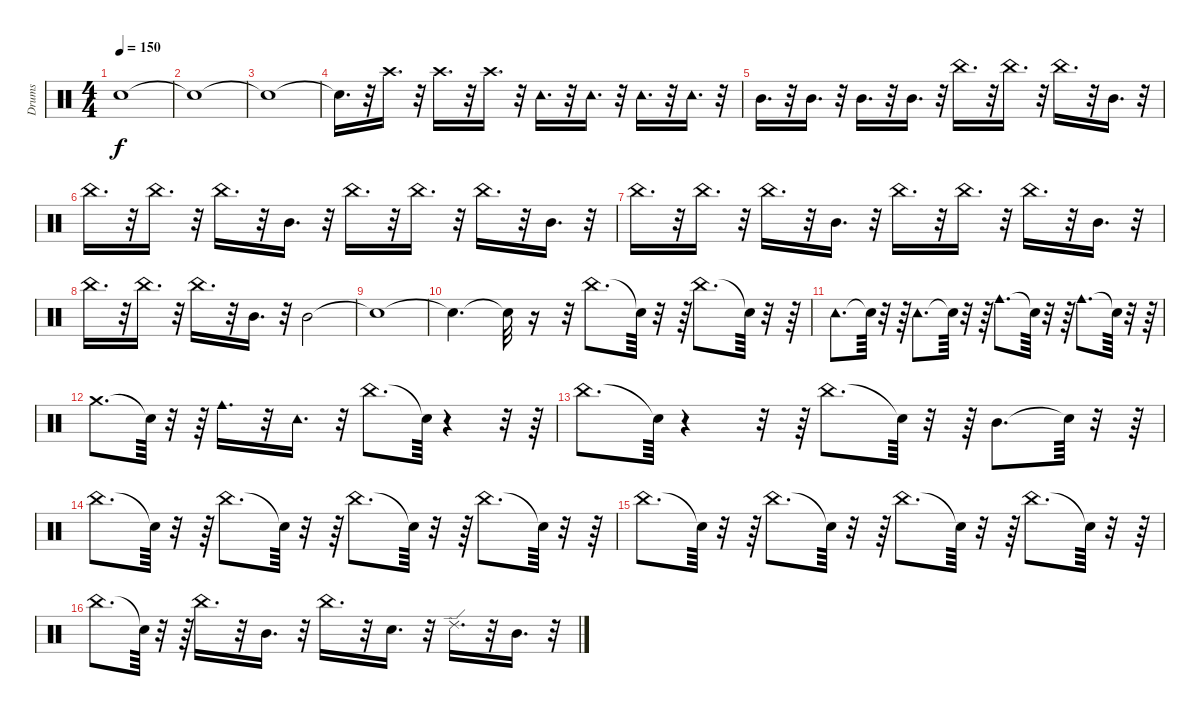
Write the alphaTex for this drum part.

\track ("Drums" "Drums") {instrument percussion}
\staff {score}
\articulation defaults
\ts (4 4)
\tempo 150
\clef neutral
\ks c "Snare (hit)"{t}.1{dy f}
|
"Snare (hit)"{t}.1 |
"Snare (hit)"{t}.1 |
"Snare (hit)"{t}.16{d} r.32 "Crash high (hit)".16{d} r.32 "Crash high (hit)".16{d} r.32 "Crash high (hit)".16{d} r.32 "Tambourine (hit)".16{d} r.32 "Tambourine (hit)".16{d} r.32 "Tambourine (hit)".16{d} r.32 "Tambourine (hit)".16{d} r.32 |
"Mid Tom (hit)".16{d} r.32 "Mid Tom (hit)".16{d} r.32 "Mid Tom (hit)".16{d} r.32 "Mid Tom (hit)".16{d} r.32 "China (hit)".16{d} r.32 "China (hit)".16{d} r.32 "China (hit)".16{d} r.32 "Mid Tom (hit)".16{d} r.32 |
"China (hit)".16{d} r.32 "China (hit)".16{d} r.32 "China (hit)".16{d} r.32 "Mid Tom (hit)".16{d} r.32 "China (hit)".16{d} r.32 "China (hit)".16{d} r.32 "China (hit)".16{d} r.32 "Mid Tom (hit)".16{d} r.32 |
"China (hit)".16{d} r.32 "China (hit)".16{d} r.32 "China (hit)".16{d} r.32 "Mid Tom (hit)".16{d} r.32 "China (hit)".16{d} r.32 "China (hit)".16{d} r.32 "China (hit)".16{d} r.32 "Mid Tom (hit)".16{d} r.32 |
"China (hit)".16{d} r.32 "China (hit)".16{d} r.32 "China (hit)".16{d} r.32 "Mid Tom (hit)".16{d} r.32 "Mid Tom (hit)".2 |
"Snare (hit)"{t}.1 |
"Snare (hit)"{t}.4{d} "Snare (hit)"{t}.32 r.16 r.32 "China (hit)".8{d} "Snare (hit)"{t}.64 r.32 r.64 "China (hit)".8{d} "Snare (hit)"{t}.64 r.32 r.64 |
"Tambourine (hit)".8{d} "Snare (hit)"{t}.64 r.32 r.64 "Tambourine (hit)".8{d} "Snare (hit)"{t}.64 r.32 r.64 "Cowbell medium (hit)".8{d} "Snare (hit)"{t}.64 r.32 r.64 "Cowbell medium (hit)".8{d} "Snare (hit)"{t}.64 r.32 r.64 |
"Crash medium (hit)".8{d} "Snare (hit)"{t}.64 r.32 r.64 "Cowbell medium (hit)".16{d} r.32 "Tambourine (hit)".16{d} r.32 "China (hit)".8{d} "Snare (hit)"{t}.64 r.4 r.32 r.64 |
"China (hit)".8{d} "Snare (hit)"{t}.64 r.4 r.32 r.64 "China (hit)".8{d} "Snare (hit)"{t}.64 r.32 r.64 "Mid Tom (hit)".8{d} "Snare (hit)"{t}.64 r.32 r.64 |
"China (hit)".8{d} "Snare (hit)"{t}.64 r.32 r.64 "China (hit)".8{d} "Snare (hit)"{t}.64 r.32 r.64 "China (hit)".8{d} "Snare (hit)"{t}.64 r.32 r.64 "China (hit)".8{d} "Snare (hit)"{t}.64 r.32 r.64 |
"China (hit)".8{d} "Snare (hit)"{t}.64 r.32 r.64 "China (hit)".8{d} "Snare (hit)"{t}.64 r.32 r.64 "China (hit)".8{d} "Snare (hit)"{t}.64 r.32 r.64 "China (hit)".8{d} "Snare (hit)"{t}.64 r.32 r.64 |
"China (hit)".8{d} "Snare (hit)"{t}.64 r.32 r.64 "China (hit)".16{d} r.32 "Mid Tom (hit)".16{d} r.32 "China (hit)".16{d} r.32 "Electric Snare (hit)".16{d} r.32 "Ride (edge) 2".16{d} r.32 "Mid Tom (hit)".16{d} r.32
